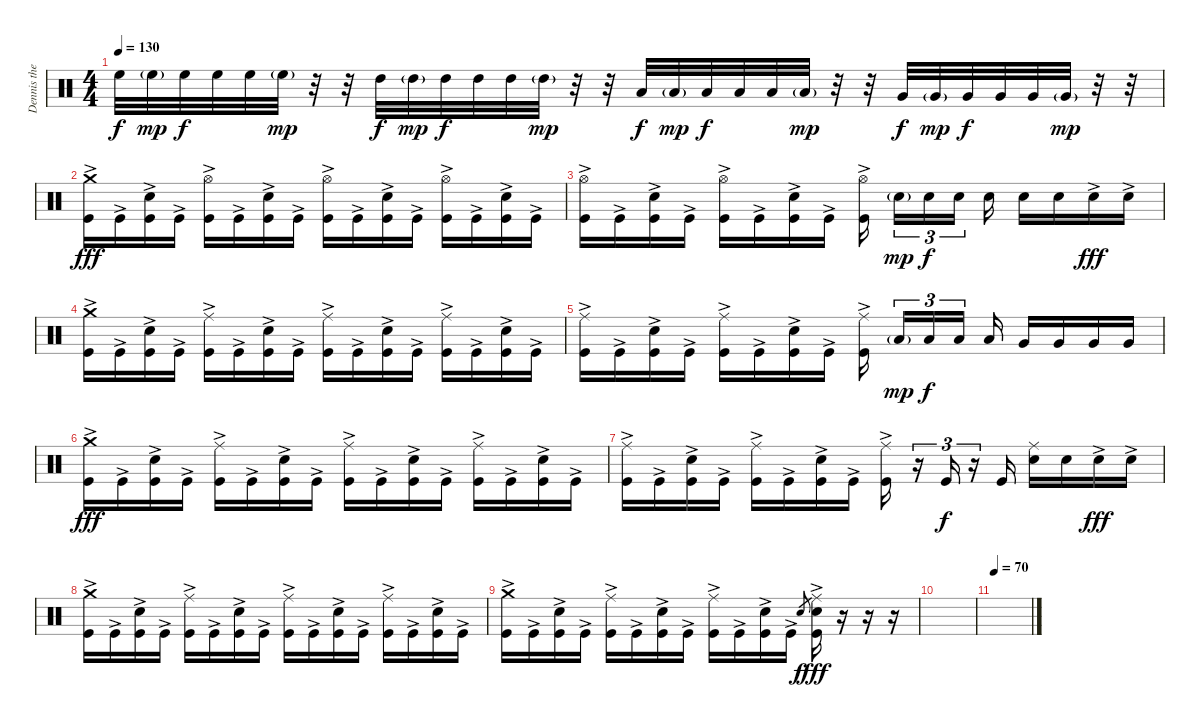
\track ("Dennis the Menace" "Dennis the") {instrument percussion}
\staff {score}
\articulation defaults
\ts (4 4)
\tempo 130
\clef neutral
\ks c "High Floor Tom (hit)".32{dy f} "High Floor Tom (hit)"{g}.32{dy mp} "High Floor Tom (hit)".32{dy f} "High Floor Tom (hit)".32 "High Floor Tom (hit)".32 "High Floor Tom (hit)"{g}.32{dy mp}
r.32 r.32 "High Tom (hit)".32{dy f} "High Tom (hit)"{g}.32{dy mp} "High Tom (hit)".32{dy f} "High Tom (hit)".32 "High Tom (hit)".32 "High Tom (hit)"{g}.32{dy mp} r.32 r.32 "Low Tom (hit)".32{dy f} "Low Tom (hit)"{g}.32{dy mp} "Low Tom (hit)".32{dy f} "Low Tom (hit)".32 "Low Tom (hit)".32 "Low Tom (hit)"{g}.32{dy mp} r.32 r.32 "Very Low Tom (hit)".32{dy f} "Very Low Tom (hit)"{g}.32{dy mp} "Very Low Tom (hit)".32{dy f} "Very Low Tom (hit)".32 "Very Low Tom (hit)".32 "Very Low Tom (hit)"{g}.32{dy mp} r.32 r.32 |
("Crash medium (hit)" "Kick (hit)"{ac}).16{dy fff} "Kick (hit)"{ac}.16 ("Electric Snare (hit)" "Kick (hit)"{ac}).16 "Kick (hit)"{ac}.16 ("Hi-Hat (open)" "Kick (hit)"{ac}).16 "Kick (hit)"{ac}.16 ("Electric Snare (hit)" "Kick (hit)"{ac}).16 "Kick (hit)"{ac}.16 ("Hi-Hat (open)" "Kick (hit)"{ac}).16 "Kick (hit)"{ac}.16 ("Electric Snare (hit)" "Kick (hit)"{ac}).16 "Kick (hit)"{ac}.16 ("Hi-Hat (open)" "Kick (hit)"{ac}).16 "Kick (hit)"{ac}.16 ("Electric Snare (hit)" "Kick (hit)"{ac}).16 "Kick (hit)"{ac}.16 |
("Hi-Hat (open)" "Kick (hit)"{ac}).16 "Kick (hit)"{ac}.16 ("Electric Snare (hit)" "Kick (hit)"{ac}).16 "Kick (hit)"{ac}.16 ("Hi-Hat (open)" "Kick (hit)"{ac}).16 "Kick (hit)"{ac}.16 ("Electric Snare (hit)" "Kick (hit)"{ac}).16 "Kick (hit)"{ac}.16 ("Hi-Hat (open)" "Kick (hit)"{ac}).16 "Electric Snare (hit)"{g}.16{tu (3 2) dy mp} "Electric Snare (hit)".16{tu (3 2) dy f} "Electric Snare (hit)".16{tu (3 2)} "Electric Snare (hit)".16 "Electric Snare (hit)".16 "Electric Snare (hit)".16 "Electric Snare (hit)"{ac}.16{dy fff} "Electric Snare (hit)"{ac}.16 |
("Crash medium (hit)" "Kick (hit)"{ac}).16 "Kick (hit)"{ac}.16 ("Electric Snare (hit)" "Kick (hit)"{ac}).16 "Kick (hit)"{ac}.16 ("Ride (middle)"{ac} "Kick (hit)"{ac}).16 "Kick (hit)"{ac}.16 ("Electric Snare (hit)" "Kick (hit)"{ac}).16 "Kick (hit)"{ac}.16 ("Ride (middle)"{ac} "Kick (hit)"{ac}).16 "Kick (hit)"{ac}.16 ("Electric Snare (hit)" "Kick (hit)"{ac}).16 "Kick (hit)"{ac}.16 ("Ride (middle)"{ac} "Kick (hit)"{ac}).16 "Kick (hit)"{ac}.16 ("Electric Snare (hit)" "Kick (hit)"{ac}).16 "Kick (hit)"{ac}.16 |
("Ride (middle)"{ac} "Kick (hit)"{ac}).16 "Kick (hit)"{ac}.16 ("Electric Snare (hit)" "Kick (hit)"{ac}).16 "Kick (hit)"{ac}.16 ("Ride (middle)"{ac} "Kick (hit)"{ac}).16 "Kick (hit)"{ac}.16 ("Electric Snare (hit)" "Kick (hit)"{ac}).16 "Kick (hit)"{ac}.16 ("Ride (middle)"{ac} "Kick (hit)"{ac}).16 "Low Tom (hit)"{g}.16{tu (3 2) dy mp} "Low Tom (hit)".16{tu (3 2) dy f} "Low Tom (hit)".16{tu (3 2)} "Low Tom (hit)".16 "Very Low Tom (hit)".16 "Very Low Tom (hit)".16 "Very Low Tom (hit)".16 "Very Low Tom (hit)".16 |
("Crash medium (hit)" "Kick (hit)"{ac}).16{dy fff} "Kick (hit)"{ac}.16 ("Electric Snare (hit)" "Kick (hit)"{ac}).16 "Kick (hit)"{ac}.16 ("Ride (middle)" "Kick (hit)"{ac}).16 "Kick (hit)"{ac}.16 ("Electric Snare (hit)" "Kick (hit)"{ac}).16 "Kick (hit)"{ac}.16 ("Ride (middle)" "Kick (hit)"{ac}).16 "Kick (hit)"{ac}.16 ("Electric Snare (hit)" "Kick (hit)"{ac}).16 "Kick (hit)"{ac}.16 ("Ride (middle)" "Kick (hit)"{ac}).16 "Kick (hit)"{ac}.16 ("Electric Snare (hit)" "Kick (hit)"{ac}).16 "Kick (hit)"{ac}.16 |
("Ride (middle)" "Kick (hit)"{ac}).16 "Kick (hit)"{ac}.16 ("Electric Snare (hit)" "Kick (hit)"{ac}).16 "Kick (hit)"{ac}.16 ("Ride (middle)" "Kick (hit)"{ac}).16 "Kick (hit)"{ac}.16 ("Electric Snare (hit)" "Kick (hit)"{ac}).16 "Kick (hit)"{ac}.16 ("Ride (middle)" "Kick (hit)"{ac}).16 r.16{tu (3 2)} "Kick (hit)".16{tu (3 2) dy f} r.16{tu (3 2)} "Kick (hit)".16 ("Ride (middle)" "Electric Snare (hit)").16 "Electric Snare (hit)".16 "Electric Snare (hit)"{ac}.16{dy fff} "Electric Snare (hit)"{ac}.16 |
("Crash medium (hit)" "Kick (hit)"{ac}).16 "Kick (hit)"{ac}.16 ("Electric Snare (hit)" "Kick (hit)"{ac}).16 "Kick (hit)"{ac}.16 ("Ride (middle)"{ac} "Kick (hit)"{ac}).16 "Kick (hit)"{ac}.16 ("Electric Snare (hit)" "Kick (hit)"{ac}).16 "Kick (hit)"{ac}.16 ("Ride (middle)"{ac} "Kick (hit)"{ac}).16 "Kick (hit)"{ac}.16 ("Electric Snare (hit)" "Kick (hit)"{ac}).16 "Kick (hit)"{ac}.16 ("Ride (middle)"{ac} "Kick (hit)"{ac}).16 "Kick (hit)"{ac}.16 ("Electric Snare (hit)" "Kick (hit)"{ac}).16 "Kick (hit)"{ac}.16 |
("Crash medium (hit)" "Kick (hit)"{ac}).16 "Kick (hit)"{ac}.16 ("Electric Snare (hit)" "Kick (hit)"{ac}).16 "Kick (hit)"{ac}.16 ("Ride (middle)"{ac} "Kick (hit)"{ac}).16 "Kick (hit)"{ac}.16 ("Electric Snare (hit)" "Kick (hit)"{ac}).16 "Kick (hit)"{ac}.16 ("Ride (middle)"{ac} "Kick (hit)"{ac}).16 "Kick (hit)"{ac}.16 ("Electric Snare (hit)" "Kick (hit)"{ac}).16 "Kick (hit)"{ac}.16 "Electric Snare (hit)".8{gr dy f} ("Ride (middle)"{ac} "Electric Snare (hit)" "Kick (hit)"{ac}).16{dy fff} r.16 r.16 r.16 |
|
\tempo 70
